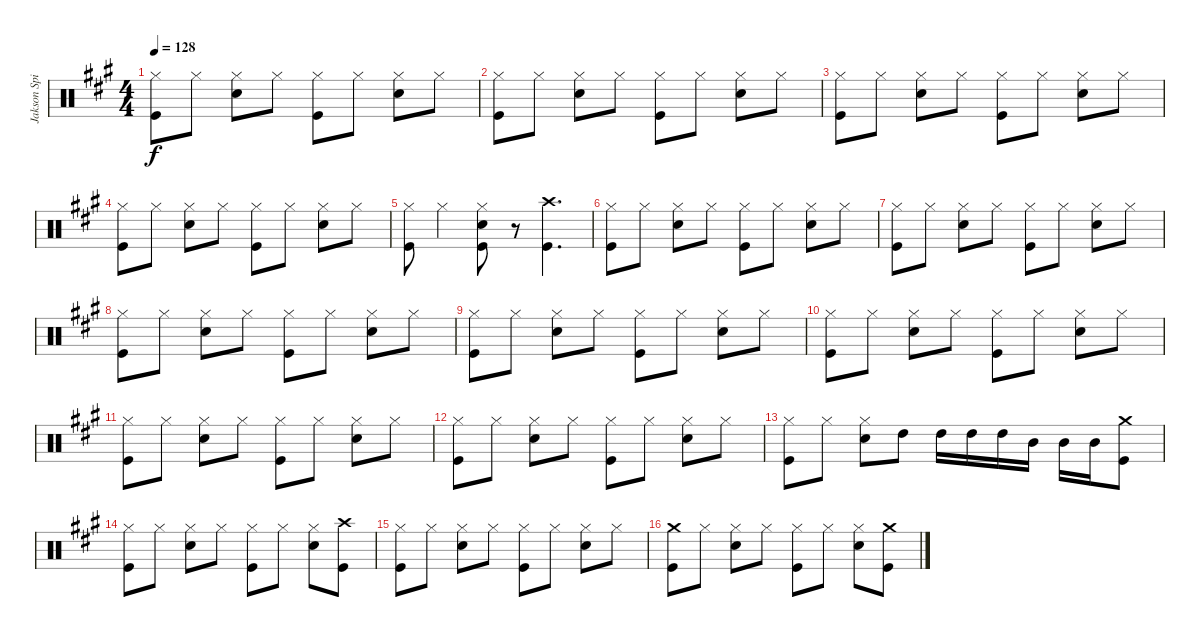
\track ("Jakson Spires Drums" "Jakson Spi") {instrument percussion}
\staff {score}
\articulation defaults
\ts (4 4)
\tempo 128
\clef neutral
\ks a
("Hi-Hat (closed)" "Kick (hit)").8{dy f} "Hi-Hat (closed)".8 ("Hi-Hat (closed)" "Snare (hit) 2").8 "Hi-Hat (closed)".8 ("Hi-Hat (closed)" "Kick (hit)").8 "Hi-Hat (closed)".8 ("Hi-Hat (closed)" "Snare (hit) 2").8 "Hi-Hat (closed)".8 |
("Hi-Hat (closed)" "Kick (hit)").8 "Hi-Hat (closed)".8 ("Hi-Hat (closed)" "Snare (hit) 2").8 "Hi-Hat (closed)".8 ("Hi-Hat (closed)" "Kick (hit)").8 "Hi-Hat (closed)".8 ("Hi-Hat (closed)" "Snare (hit) 2").8 "Hi-Hat (closed)".8 |
("Hi-Hat (closed)" "Kick (hit)").8 "Hi-Hat (closed)".8 ("Hi-Hat (closed)" "Snare (hit) 2").8 "Hi-Hat (closed)".8 ("Hi-Hat (closed)" "Kick (hit)").8 "Hi-Hat (closed)".8 ("Hi-Hat (closed)" "Snare (hit) 2").8 "Hi-Hat (closed)".8 |
("Hi-Hat (closed)" "Kick (hit)").8 "Hi-Hat (closed)".8 ("Hi-Hat (closed)" "Snare (hit) 2").8 "Hi-Hat (closed)".8 ("Hi-Hat (closed)" "Kick (hit)").8 "Hi-Hat (closed)".8 ("Hi-Hat (closed)" "Snare (hit) 2").8 "Hi-Hat (closed)".8 |
("Hi-Hat (closed)" "Kick (hit)").8 "Hi-Hat (closed)".4 ("Hi-Hat (closed)" "Snare (hit) 2" "Kick (hit)").8 r.8 ("Crash high (hit)" "Kick (hit)").4{d} |
("Hi-Hat (closed)" "Kick (hit)").8 "Hi-Hat (closed)".8 ("Hi-Hat (closed)" "Snare (hit) 2").8 "Hi-Hat (closed)".8 ("Hi-Hat (closed)" "Kick (hit)").8 "Hi-Hat (closed)".8 ("Hi-Hat (closed)" "Snare (hit) 2").8 "Hi-Hat (closed)".8 |
("Hi-Hat (closed)" "Kick (hit)").8 "Hi-Hat (closed)".8 ("Hi-Hat (closed)" "Snare (hit) 2").8 "Hi-Hat (closed)".8 ("Hi-Hat (closed)" "Kick (hit)").8 "Hi-Hat (closed)".8 ("Hi-Hat (closed)" "Snare (hit) 2").8 "Hi-Hat (closed)".8 |
("Hi-Hat (closed)" "Kick (hit)").8 "Hi-Hat (closed)".8 ("Hi-Hat (closed)" "Snare (hit) 2").8 "Hi-Hat (closed)".8 ("Hi-Hat (closed)" "Kick (hit)").8 "Hi-Hat (closed)".8 ("Hi-Hat (closed)" "Snare (hit) 2").8 "Hi-Hat (closed)".8 |
("Hi-Hat (closed)" "Kick (hit)").8 "Hi-Hat (closed)".8 ("Hi-Hat (closed)" "Snare (hit) 2").8 "Hi-Hat (closed)".8 ("Hi-Hat (closed)" "Kick (hit)").8 "Hi-Hat (closed)".8 ("Hi-Hat (closed)" "Snare (hit) 2").8 "Hi-Hat (closed)".8 |
("Hi-Hat (closed)" "Kick (hit)").8 "Hi-Hat (closed)".8 ("Hi-Hat (closed)" "Snare (hit) 2").8 "Hi-Hat (closed)".8 ("Hi-Hat (closed)" "Kick (hit)").8 "Hi-Hat (closed)".8 ("Hi-Hat (closed)" "Snare (hit) 2").8 "Hi-Hat (closed)".8 |
("Hi-Hat (closed)" "Kick (hit)").8 "Hi-Hat (closed)".8 ("Hi-Hat (closed)" "Snare (hit) 2").8 "Hi-Hat (closed)".8 ("Hi-Hat (closed)" "Kick (hit)").8 "Hi-Hat (closed)".8 ("Hi-Hat (closed)" "Snare (hit) 2").8 "Hi-Hat (closed)".8 |
("Hi-Hat (closed)" "Kick (hit)").8 "Hi-Hat (closed)".8 ("Hi-Hat (closed)" "Snare (hit) 2").8 "Hi-Hat (closed)".8 ("Hi-Hat (closed)" "Kick (hit)").8 "Hi-Hat (closed)".8 ("Hi-Hat (closed)" "Snare (hit) 2").8 "Hi-Hat (closed)".8 |
("Hi-Hat (closed)" "Kick (hit)").8 "Hi-Hat (closed)".8 ("Hi-Hat (closed)" "Snare (hit) 2").8 "High Tom (hit)".8 "High Tom (hit)".16 "High Tom (hit)".16 "High Tom (hit)".16 "Mid Tom (hit)".16 "Mid Tom (hit)".16 "Mid Tom (hit)".16 ("Crash medium (hit)" "Kick (hit)").8 |
("Hi-Hat (closed)" "Kick (hit)").8 "Hi-Hat (closed)".8 ("Hi-Hat (closed)" "Snare (hit) 2").8 "Hi-Hat (closed)".8 ("Hi-Hat (closed)" "Kick (hit)").8 "Hi-Hat (closed)".8 ("Hi-Hat (closed)" "Snare (hit) 2").8 ("Crash high (hit)" "Kick (hit)").8 |
("Hi-Hat (closed)" "Kick (hit)").8 "Hi-Hat (closed)".8 ("Hi-Hat (closed)" "Snare (hit) 2").8 "Hi-Hat (closed)".8 ("Hi-Hat (closed)" "Kick (hit)").8 "Hi-Hat (closed)".8 ("Hi-Hat (closed)" "Snare (hit) 2").8 "Hi-Hat (closed)".8 |
("Crash medium (hit)" "Kick (hit)").8 "Hi-Hat (closed)".8 ("Hi-Hat (closed)" "Snare (hit) 2").8 "Hi-Hat (closed)".8 ("Hi-Hat (closed)" "Kick (hit)").8 "Hi-Hat (closed)".8 ("Hi-Hat (closed)" "Snare (hit) 2").8 ("Crash medium (hit)" "Kick (hit)").8
